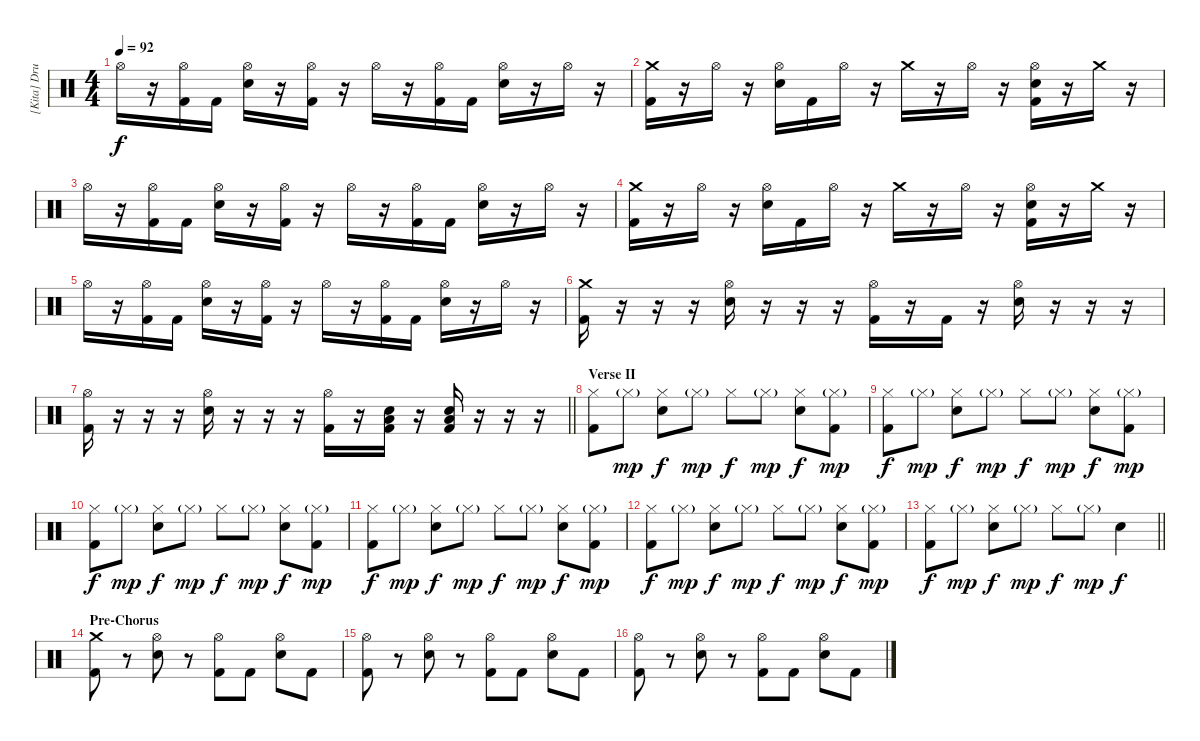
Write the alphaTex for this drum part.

\track ("[Kita] Drum" "[Kita] Dru") {instrument percussion}
\staff {score}
\articulation defaults
\ts (4 4)
\tempo 92
\clef neutral
\ks c "Hi-Hat (open)".16{dy f}
r.16 ("Kick (hit) 2" "Hi-Hat (open)").16 "Kick (hit) 2".16 ("Hi-Hat (open)" "Electric Snare (hit)").16 r.16 ("Kick (hit) 2" "Hi-Hat (open)").16 r.16 "Hi-Hat (open)".16 r.16 ("Kick (hit) 2" "Hi-Hat (open)").16 "Kick (hit) 2".16 ("Hi-Hat (open)" "Electric Snare (hit)").16 r.16 "Hi-Hat (open)".16 r.16 |
("Kick (hit) 2" "Crash medium (hit)").16 r.16 "Hi-Hat (open)".16 r.16 ("Hi-Hat (open)" "Electric Snare (hit)").16 "Kick (hit) 2".16 "Hi-Hat (open)".16 r.16 "Crash medium (hit)".16 r.16 "Hi-Hat (open)".16 r.16 ("Kick (hit) 2" "Hi-Hat (open)" "Electric Snare (hit)").16 r.16 "Crash medium (hit)".16 r.16 |
"Hi-Hat (open)".16 r.16 ("Kick (hit) 2" "Hi-Hat (open)").16 "Kick (hit) 2".16 ("Hi-Hat (open)" "Electric Snare (hit)").16 r.16 ("Kick (hit) 2" "Hi-Hat (open)").16 r.16 "Hi-Hat (open)".16 r.16 ("Kick (hit) 2" "Hi-Hat (open)").16 "Kick (hit) 2".16 ("Hi-Hat (open)" "Electric Snare (hit)").16 r.16 "Hi-Hat (open)".16 r.16 |
("Kick (hit) 2" "Crash medium (hit)").16 r.16 "Hi-Hat (open)".16 r.16 ("Hi-Hat (open)" "Electric Snare (hit)").16 "Kick (hit) 2".16 "Hi-Hat (open)".16 r.16 "Crash medium (hit)".16 r.16 "Hi-Hat (open)".16 r.16 ("Kick (hit) 2" "Hi-Hat (open)" "Electric Snare (hit)").16 r.16 "Crash medium (hit)".16 r.16 |
"Hi-Hat (open)".16 r.16 ("Kick (hit) 2" "Hi-Hat (open)").16 "Kick (hit) 2".16 ("Hi-Hat (open)" "Electric Snare (hit)").16 r.16 ("Kick (hit) 2" "Hi-Hat (open)").16 r.16 "Hi-Hat (open)".16 r.16 ("Kick (hit) 2" "Hi-Hat (open)").16 "Kick (hit) 2".16 ("Hi-Hat (open)" "Electric Snare (hit)").16 r.16 "Hi-Hat (open)".16 r.16 |
("Kick (hit) 2" "Crash medium (hit)").16 r.16 r.16 r.16 ("Hi-Hat (open)" "Electric Snare (hit)").16 r.16 r.16 r.16 ("Kick (hit) 2" "Hi-Hat (open)").16 r.16 "Kick (hit) 2".16 r.16 ("Hi-Hat (open)" "Electric Snare (hit)").16 r.16 r.16 r.16 |
\barLineRight lightlight
("Kick (hit) 2" "Hi-Hat (open)").16 r.16 r.16 r.16 ("Hi-Hat (open)" "Electric Snare (hit)").16 r.16 r.16 r.16 ("Kick (hit) 2" "Hi-Hat (open)").16 r.16 ("Kick (hit) 2" "Electric Snare (hit)" "Low Tom (hit)").16 r.16 ("Kick (hit) 2" "Electric Snare (hit)" "Low Tom (hit)").16 r.16 r.16 r.16 |
\section ("" "Verse II")
("Kick (hit) 2" "Hi-Hat (closed)").8 "Hi-Hat (closed)"{g}.8{dy mp} ("Hi-Hat (closed)" "Electric Snare (hit)").8{dy f} "Hi-Hat (closed)"{g}.8{dy mp} "Hi-Hat (closed)".8{dy f} "Hi-Hat (closed)"{g}.8{dy mp} ("Hi-Hat (closed)" "Electric Snare (hit)").8{dy f} ("Kick (hit) 2" "Hi-Hat (closed)"{g}).8{dy mp} |
("Kick (hit) 2" "Hi-Hat (closed)").8{dy f} "Hi-Hat (closed)"{g}.8{dy mp} ("Hi-Hat (closed)" "Electric Snare (hit)").8{dy f} "Hi-Hat (closed)"{g}.8{dy mp} "Hi-Hat (closed)".8{dy f} "Hi-Hat (closed)"{g}.8{dy mp} ("Hi-Hat (closed)" "Electric Snare (hit)").8{dy f} ("Kick (hit) 2" "Hi-Hat (closed)"{g}).8{dy mp} |
("Kick (hit) 2" "Hi-Hat (closed)").8{dy f} "Hi-Hat (closed)"{g}.8{dy mp} ("Hi-Hat (closed)" "Electric Snare (hit)").8{dy f} "Hi-Hat (closed)"{g}.8{dy mp} "Hi-Hat (closed)".8{dy f} "Hi-Hat (closed)"{g}.8{dy mp} ("Hi-Hat (closed)" "Electric Snare (hit)").8{dy f} ("Kick (hit) 2" "Hi-Hat (closed)"{g}).8{dy mp} |
("Kick (hit) 2" "Hi-Hat (closed)").8{dy f} "Hi-Hat (closed)"{g}.8{dy mp} ("Hi-Hat (closed)" "Electric Snare (hit)").8{dy f} "Hi-Hat (closed)"{g}.8{dy mp} "Hi-Hat (closed)".8{dy f} "Hi-Hat (closed)"{g}.8{dy mp} ("Hi-Hat (closed)" "Electric Snare (hit)").8{dy f} ("Kick (hit) 2" "Hi-Hat (closed)"{g}).8{dy mp} |
("Kick (hit) 2" "Hi-Hat (closed)").8{dy f} "Hi-Hat (closed)"{g}.8{dy mp} ("Hi-Hat (closed)" "Electric Snare (hit)").8{dy f} "Hi-Hat (closed)"{g}.8{dy mp} "Hi-Hat (closed)".8{dy f} "Hi-Hat (closed)"{g}.8{dy mp} ("Hi-Hat (closed)" "Electric Snare (hit)").8{dy f} ("Kick (hit) 2" "Hi-Hat (closed)"{g}).8{dy mp} |
\barLineRight lightlight
("Kick (hit) 2" "Hi-Hat (closed)").8{dy f} "Hi-Hat (closed)"{g}.8{dy mp} ("Hi-Hat (closed)" "Electric Snare (hit)").8{dy f} "Hi-Hat (closed)"{g}.8{dy mp} "Hi-Hat (closed)".8{dy f} "Hi-Hat (closed)"{g}.8{dy mp} "Electric Snare (hit)".4{dy f} |
\section ("" "Pre-Chorus")
("Kick (hit) 2" "Crash medium (hit)").8 r.8 ("Hi-Hat (open)" "Electric Snare (hit)").8 r.8 ("Kick (hit) 2" "Hi-Hat (open)").8 "Kick (hit) 2".8 ("Hi-Hat (open)" "Electric Snare (hit)").8 "Kick (hit) 2".8 |
("Kick (hit) 2" "Hi-Hat (open)").8 r.8 ("Hi-Hat (open)" "Electric Snare (hit)").8 r.8 ("Kick (hit) 2" "Hi-Hat (open)").8 "Kick (hit) 2".8 ("Hi-Hat (open)" "Electric Snare (hit)").8 "Kick (hit) 2".8 |
("Kick (hit) 2" "Hi-Hat (open)").8 r.8 ("Hi-Hat (open)" "Electric Snare (hit)").8 r.8 ("Kick (hit) 2" "Hi-Hat (open)").8 "Kick (hit) 2".8 ("Hi-Hat (open)" "Electric Snare (hit)").8 "Kick (hit) 2".8
